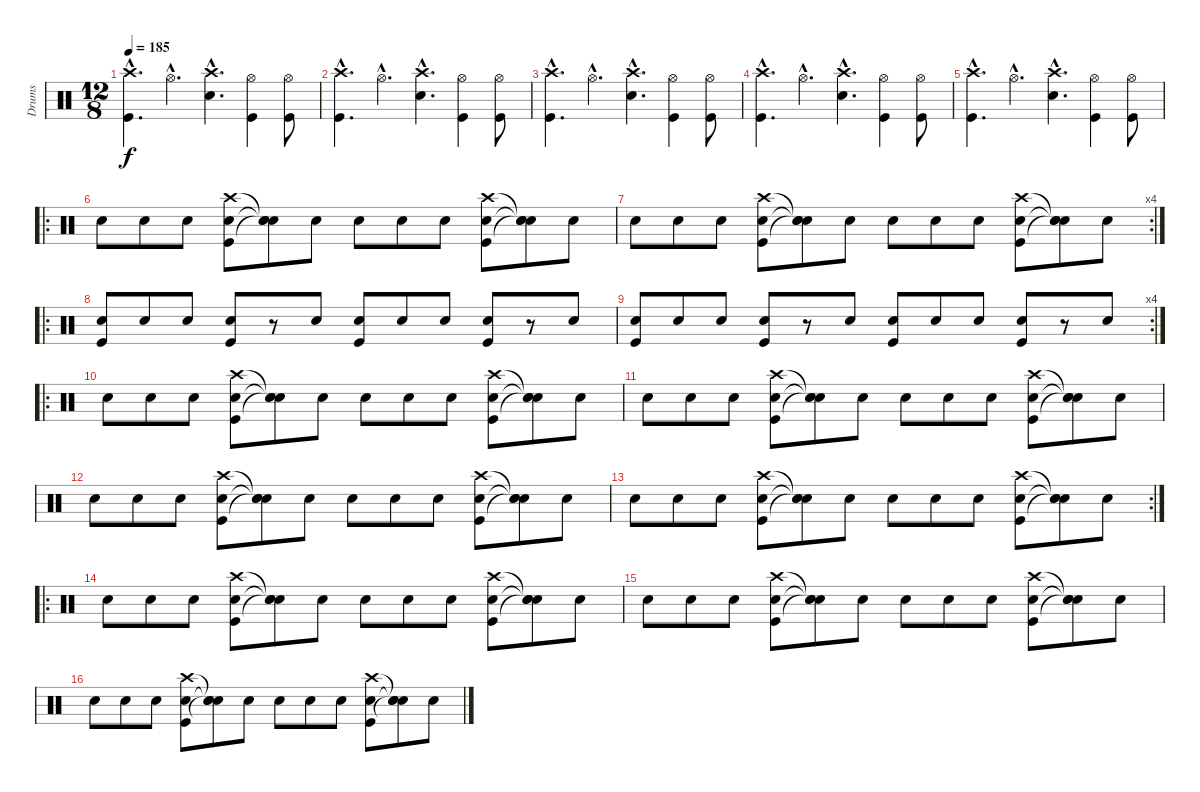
\track ("Drums" "Drums") {instrument percussion}
\staff {score}
\articulation defaults
\ts (12 8)
\tempo 185
\clef neutral
\ks c
("Crash high (hit)"{hac} "Kick (hit)"{hac}).4{d dy f} "Hi-Hat (open)"{hac}.4{d} ("Crash high (hit)"{hac} "Snare (hit) 2"{hac}).4{d} ("Hi-Hat (open)" "Kick (hit)").4 ("Hi-Hat (open)" "Kick (hit)").8 |
("Crash high (hit)"{hac} "Kick (hit)"{hac}).4{d} "Hi-Hat (open)"{hac}.4{d} ("Crash high (hit)"{hac} "Snare (hit) 2"{hac}).4{d} ("Hi-Hat (open)" "Kick (hit)").4 ("Hi-Hat (open)" "Kick (hit)").8 |
("Crash high (hit)"{hac} "Kick (hit)"{hac}).4{d} "Hi-Hat (open)"{hac}.4{d} ("Crash high (hit)"{hac} "Snare (hit) 2"{hac}).4{d} ("Hi-Hat (open)" "Kick (hit)").4 ("Hi-Hat (open)" "Kick (hit)").8 |
("Crash high (hit)"{hac} "Kick (hit)"{hac}).4{d} "Hi-Hat (open)"{hac}.4{d} ("Crash high (hit)"{hac} "Snare (hit) 2"{hac}).4{d} ("Hi-Hat (open)" "Kick (hit)").4 ("Hi-Hat (open)" "Kick (hit)").8 |
("Crash high (hit)"{hac} "Kick (hit)"{hac}).4{d} "Hi-Hat (open)"{hac}.4{d} ("Crash high (hit)"{hac} "Snare (hit) 2"{hac}).4{d} ("Hi-Hat (open)" "Kick (hit)").4 ("Hi-Hat (open)" "Kick (hit)").8 |
\ro "Snare (hit) 2".8 "Snare (hit) 2".8 "Snare (hit) 2".8
("Electric Snare (hit)" "Crash high (hit)" "Kick (hit)").8 ("Snare (hit)"{t} "Snare (hit)"{t} "Snare (hit)"{t}).8 "Snare (hit) 2".8 "Snare (hit) 2".8 "Snare (hit) 2".8 "Snare (hit) 2".8 ("Electric Snare (hit)" "Crash high (hit)" "Kick (hit)").8 ("Snare (hit)"{t} "Snare (hit)"{t} "Snare (hit)"{t}).8 "Snare (hit) 2".8 |
\rc 4 "Snare (hit) 2".8 "Snare (hit) 2".8 "Snare (hit) 2".8
("Electric Snare (hit)" "Crash high (hit)" "Kick (hit)").8 ("Snare (hit)"{t} "Snare (hit)"{t} "Snare (hit)"{t}).8 "Snare (hit) 2".8 "Snare (hit) 2".8 "Snare (hit) 2".8 "Snare (hit) 2".8 ("Electric Snare (hit)" "Crash high (hit)" "Kick (hit)").8 ("Snare (hit)"{t} "Snare (hit)"{t} "Snare (hit)"{t}).8 "Snare (hit) 2".8 |
\ro
("Snare (hit) 2" "Kick (hit)").8 "Snare (hit) 2".8 "Snare (hit) 2".8 ("Snare (hit) 2" "Kick (hit)").8 r.8 "Snare (hit) 2".8 ("Snare (hit) 2" "Kick (hit)").8 "Snare (hit) 2".8 "Snare (hit) 2".8 ("Snare (hit) 2" "Kick (hit)").8 r.8 "Snare (hit) 2".8 |
\rc 4
("Snare (hit) 2" "Kick (hit)").8 "Snare (hit) 2".8 "Snare (hit) 2".8 ("Snare (hit) 2" "Kick (hit)").8 r.8 "Snare (hit) 2".8 ("Snare (hit) 2" "Kick (hit)").8 "Snare (hit) 2".8 "Snare (hit) 2".8 ("Snare (hit) 2" "Kick (hit)").8 r.8 "Snare (hit) 2".8 |
\ro "Snare (hit) 2".8 "Snare (hit) 2".8 "Snare (hit) 2".8
("Electric Snare (hit)" "Crash high (hit)" "Kick (hit)").8 ("Snare (hit)"{t} "Snare (hit)"{t} "Snare (hit)"{t}).8 "Snare (hit) 2".8 "Snare (hit) 2".8 "Snare (hit) 2".8 "Snare (hit) 2".8 ("Electric Snare (hit)" "Crash high (hit)" "Kick (hit)").8 ("Snare (hit)"{t} "Snare (hit)"{t} "Snare (hit)"{t}).8 "Snare (hit) 2".8 |
"Snare (hit) 2".8 "Snare (hit) 2".8 "Snare (hit) 2".8 ("Electric Snare (hit)" "Crash high (hit)" "Kick (hit)").8 ("Snare (hit)"{t} "Snare (hit)"{t} "Snare (hit)"{t}).8 "Snare (hit) 2".8 "Snare (hit) 2".8 "Snare (hit) 2".8 "Snare (hit) 2".8 ("Electric Snare (hit)" "Crash high (hit)" "Kick (hit)").8 ("Snare (hit)"{t} "Snare (hit)"{t} "Snare (hit)"{t}).8 "Snare (hit) 2".8 |
"Snare (hit) 2".8 "Snare (hit) 2".8 "Snare (hit) 2".8 ("Electric Snare (hit)" "Crash high (hit)" "Kick (hit)").8 ("Snare (hit)"{t} "Snare (hit)"{t} "Snare (hit)"{t}).8 "Snare (hit) 2".8 "Snare (hit) 2".8 "Snare (hit) 2".8 "Snare (hit) 2".8 ("Electric Snare (hit)" "Crash high (hit)" "Kick (hit)").8 ("Snare (hit)"{t} "Snare (hit)"{t} "Snare (hit)"{t}).8 "Snare (hit) 2".8 |
\rc 2 "Snare (hit) 2".8 "Snare (hit) 2".8 "Snare (hit) 2".8
("Electric Snare (hit)" "Crash high (hit)" "Kick (hit)").8 ("Snare (hit)"{t} "Snare (hit)"{t} "Snare (hit)"{t}).8 "Snare (hit) 2".8 "Snare (hit) 2".8 "Snare (hit) 2".8 "Snare (hit) 2".8 ("Electric Snare (hit)" "Crash high (hit)" "Kick (hit)").8 ("Snare (hit)"{t} "Snare (hit)"{t} "Snare (hit)"{t}).8 "Snare (hit) 2".8 |
\ro "Snare (hit) 2".8 "Snare (hit) 2".8 "Snare (hit) 2".8
("Electric Snare (hit)" "Crash high (hit)" "Kick (hit)").8 ("Snare (hit)"{t} "Snare (hit)"{t} "Snare (hit)"{t}).8 "Snare (hit) 2".8 "Snare (hit) 2".8 "Snare (hit) 2".8 "Snare (hit) 2".8 ("Electric Snare (hit)" "Crash high (hit)" "Kick (hit)").8 ("Snare (hit)"{t} "Snare (hit)"{t} "Snare (hit)"{t}).8 "Snare (hit) 2".8 |
"Snare (hit) 2".8 "Snare (hit) 2".8 "Snare (hit) 2".8 ("Electric Snare (hit)" "Crash high (hit)" "Kick (hit)").8 ("Snare (hit)"{t} "Snare (hit)"{t} "Snare (hit)"{t}).8 "Snare (hit) 2".8 "Snare (hit) 2".8 "Snare (hit) 2".8 "Snare (hit) 2".8 ("Electric Snare (hit)" "Crash high (hit)" "Kick (hit)").8 ("Snare (hit)"{t} "Snare (hit)"{t} "Snare (hit)"{t}).8 "Snare (hit) 2".8 |
"Snare (hit) 2".8 "Snare (hit) 2".8 "Snare (hit) 2".8 ("Electric Snare (hit)" "Crash high (hit)" "Kick (hit)").8 ("Snare (hit)"{t} "Snare (hit)"{t} "Snare (hit)"{t}).8 "Snare (hit) 2".8 "Snare (hit) 2".8 "Snare (hit) 2".8 "Snare (hit) 2".8 ("Electric Snare (hit)" "Crash high (hit)" "Kick (hit)").8 ("Snare (hit)"{t} "Snare (hit)"{t} "Snare (hit)"{t}).8 "Snare (hit) 2".8
